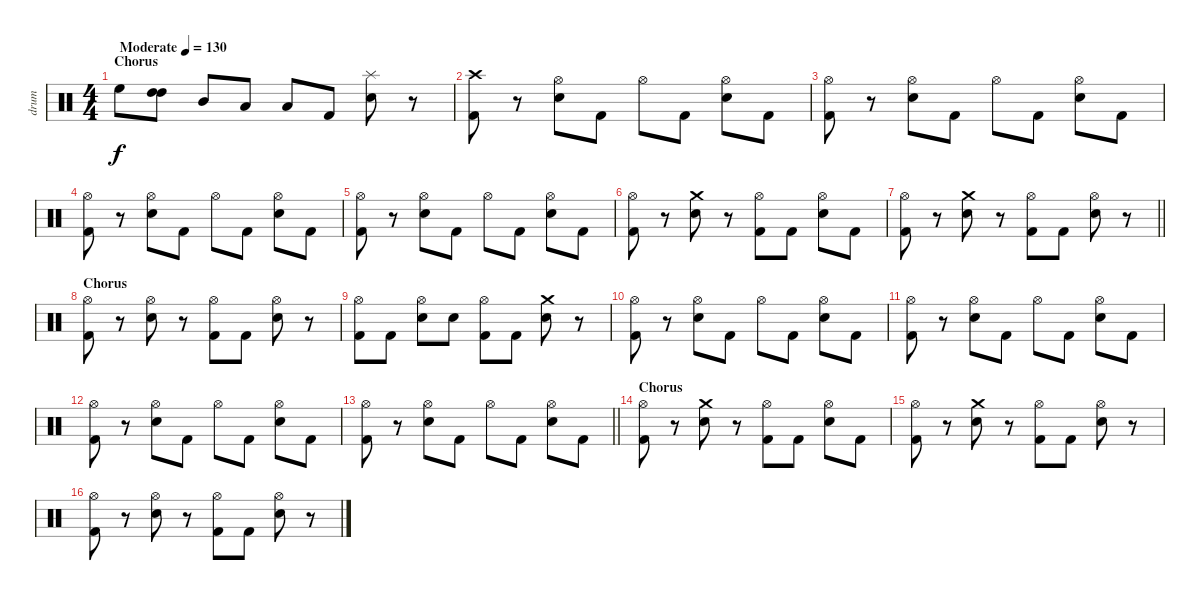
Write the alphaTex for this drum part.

\track ("drum" "drum") {instrument percussion}
\staff {score}
\articulation defaults
\ts (4 4)
\section ("" "Chorus")
\tempo (130 "Moderate")
\clef neutral
\ks c "High Floor Tom (hit)".8{dy f}
("High Tom (hit)" "High Tom (hit)").8 "Mid Tom (hit)".8 "Low Tom (hit)".8 "Low Tom (hit)".8 "Kick (hit) 2".8 ("Splash (hit)" "Electric Snare (hit)").8 r.8 |
("Crash high (hit)" "Kick (hit) 2").8 r.8 ("Hi-Hat (open)" "Electric Snare (hit)").8 "Kick (hit) 2".8 "Hi-Hat (open)".8 "Kick (hit) 2".8 ("Hi-Hat (open)" "Electric Snare (hit)").8 "Kick (hit) 2".8 |
("Hi-Hat (open)" "Kick (hit) 2").8 r.8 ("Hi-Hat (open)" "Electric Snare (hit)").8 "Kick (hit) 2".8 "Hi-Hat (open)".8 "Kick (hit) 2".8 ("Hi-Hat (open)" "Electric Snare (hit)").8 "Kick (hit) 2".8 |
("Hi-Hat (open)" "Kick (hit) 2").8 r.8 ("Hi-Hat (open)" "Electric Snare (hit)").8 "Kick (hit) 2".8 "Hi-Hat (open)".8 "Kick (hit) 2".8 ("Hi-Hat (open)" "Electric Snare (hit)").8 "Kick (hit) 2".8 |
("Hi-Hat (open)" "Kick (hit) 2").8 r.8 ("Hi-Hat (open)" "Electric Snare (hit)").8 "Kick (hit) 2".8 "Hi-Hat (open)".8 "Kick (hit) 2".8 ("Hi-Hat (open)" "Electric Snare (hit)").8 "Kick (hit) 2".8 |
("Hi-Hat (open)" "Kick (hit) 2").8 r.8 ("Crash medium (hit)" "Electric Snare (hit)").8 r.8 ("Hi-Hat (open)" "Kick (hit) 2").8 "Kick (hit) 2".8 ("Hi-Hat (open)" "Electric Snare (hit)").8 "Kick (hit) 2".8 |
\barLineRight lightlight
("Hi-Hat (open)" "Kick (hit) 2").8 r.8 ("Crash medium (hit)" "Electric Snare (hit)").8 r.8 ("Hi-Hat (open)" "Kick (hit) 2").8 "Kick (hit) 2".8 ("Hi-Hat (open)" "Electric Snare (hit)").8 r.8 |
\section ("" "Chorus")
("Hi-Hat (open)" "Kick (hit) 2").8 r.8 ("Hi-Hat (open)" "Electric Snare (hit)").8 r.8 ("Hi-Hat (open)" "Kick (hit) 2").8 "Kick (hit) 2".8 ("Hi-Hat (open)" "Electric Snare (hit)").8 r.8 |
("Hi-Hat (open)" "Kick (hit) 2").8 "Kick (hit) 2".8 ("Hi-Hat (open)" "Electric Snare (hit)").8 "Electric Snare (hit)".8 ("Kick (hit) 2" "Hi-Hat (open)").8 "Kick (hit) 2".8 ("Crash medium (hit)" "Electric Snare (hit)").8 r.8 |
("Hi-Hat (open)" "Kick (hit) 2").8 r.8 ("Hi-Hat (open)" "Electric Snare (hit)").8 "Kick (hit) 2".8 "Hi-Hat (open)".8 "Kick (hit) 2".8 ("Hi-Hat (open)" "Electric Snare (hit)").8 "Kick (hit) 2".8 |
("Hi-Hat (open)" "Kick (hit) 2").8 r.8 ("Hi-Hat (open)" "Electric Snare (hit)").8 "Kick (hit) 2".8 "Hi-Hat (open)".8 "Kick (hit) 2".8 ("Hi-Hat (open)" "Electric Snare (hit)").8 "Kick (hit) 2".8 |
("Hi-Hat (open)" "Kick (hit) 2").8 r.8 ("Hi-Hat (open)" "Electric Snare (hit)").8 "Kick (hit) 2".8 "Hi-Hat (open)".8 "Kick (hit) 2".8 ("Hi-Hat (open)" "Electric Snare (hit)").8 "Kick (hit) 2".8 |
\barLineRight lightlight
("Hi-Hat (open)" "Kick (hit) 2").8 r.8 ("Hi-Hat (open)" "Electric Snare (hit)").8 "Kick (hit) 2".8 "Hi-Hat (open)".8 "Kick (hit) 2".8 ("Hi-Hat (open)" "Electric Snare (hit)").8 "Kick (hit) 2".8 |
\section ("" "Chorus")
("Hi-Hat (open)" "Kick (hit) 2").8 r.8 ("Crash medium (hit)" "Electric Snare (hit)").8 r.8 ("Hi-Hat (open)" "Kick (hit) 2").8 "Kick (hit) 2".8 ("Hi-Hat (open)" "Electric Snare (hit)").8 "Kick (hit) 2".8 |
("Hi-Hat (open)" "Kick (hit) 2").8 r.8 ("Crash medium (hit)" "Electric Snare (hit)").8 r.8 ("Hi-Hat (open)" "Kick (hit) 2").8 "Kick (hit) 2".8 ("Hi-Hat (open)" "Electric Snare (hit)").8 r.8 |
("Hi-Hat (open)" "Kick (hit) 2").8 r.8 ("Hi-Hat (open)" "Electric Snare (hit)").8 r.8 ("Hi-Hat (open)" "Kick (hit) 2").8 "Kick (hit) 2".8 ("Hi-Hat (open)" "Electric Snare (hit)").8 r.8
